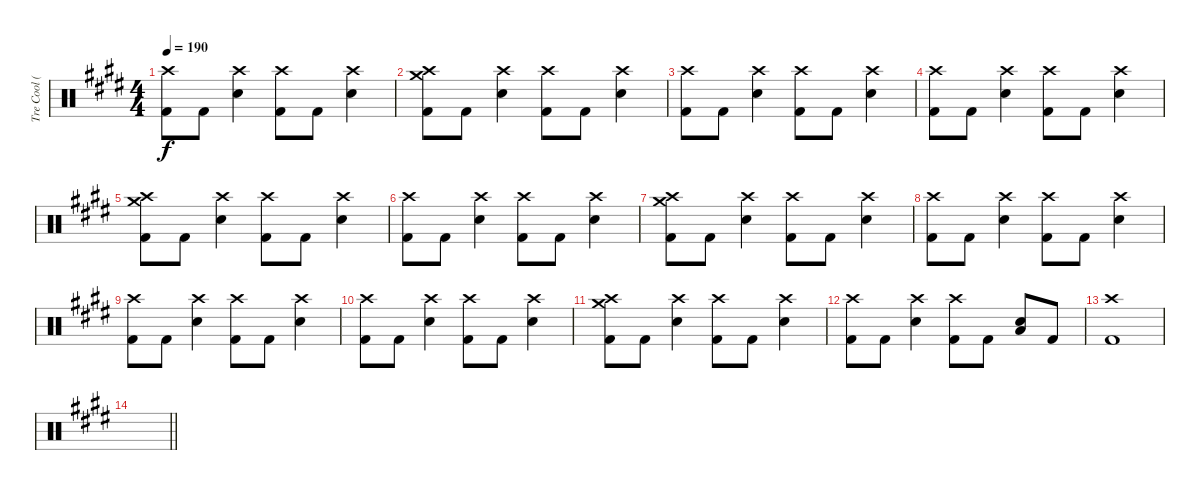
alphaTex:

\track ("Tre Cool (Drums)" "Tre Cool (") {instrument percussion}
\staff {score}
\articulation defaults
\ts (4 4)
\tempo 190
\clef neutral
\ks e
("Kick (hit) 2" "Crash high (hit)").8{dy f} "Kick (hit) 2".8 ("Electric Snare (hit)" "Crash high (hit)").4 ("Kick (hit) 2" "Crash high (hit)").8 "Kick (hit) 2".8 ("Electric Snare (hit)" "Crash high (hit)").4 |
("Kick (hit) 2" "Crash medium (hit)" "Crash high (hit)").8 "Kick (hit) 2".8 ("Electric Snare (hit)" "Crash high (hit)").4 ("Kick (hit) 2" "Crash high (hit)").8 "Kick (hit) 2".8 ("Electric Snare (hit)" "Crash high (hit)").4 |
("Kick (hit) 2" "Crash high (hit)").8 "Kick (hit) 2".8 ("Electric Snare (hit)" "Crash high (hit)").4 ("Kick (hit) 2" "Crash high (hit)").8 "Kick (hit) 2".8 ("Electric Snare (hit)" "Crash high (hit)").4 |
("Kick (hit) 2" "Crash high (hit)").8 "Kick (hit) 2".8 ("Electric Snare (hit)" "Crash high (hit)").4 ("Kick (hit) 2" "Crash high (hit)").8 "Kick (hit) 2".8 ("Electric Snare (hit)" "Crash high (hit)").4 |
("Kick (hit) 2" "Crash medium (hit)" "Crash high (hit)").8 "Kick (hit) 2".8 ("Electric Snare (hit)" "Crash high (hit)").4 ("Kick (hit) 2" "Crash high (hit)").8 "Kick (hit) 2".8 ("Electric Snare (hit)" "Crash high (hit)").4 |
("Kick (hit) 2" "Crash high (hit)").8 "Kick (hit) 2".8 ("Electric Snare (hit)" "Crash high (hit)").4 ("Kick (hit) 2" "Crash high (hit)").8 "Kick (hit) 2".8 ("Electric Snare (hit)" "Crash high (hit)").4 |
("Kick (hit) 2" "Crash medium (hit)" "Crash high (hit)").8 "Kick (hit) 2".8 ("Electric Snare (hit)" "Crash high (hit)").4 ("Kick (hit) 2" "Crash high (hit)").8 "Kick (hit) 2".8 ("Electric Snare (hit)" "Crash high (hit)").4 |
("Kick (hit) 2" "Crash high (hit)").8 "Kick (hit) 2".8 ("Electric Snare (hit)" "Crash high (hit)").4 ("Kick (hit) 2" "Crash high (hit)").8 "Kick (hit) 2".8 ("Electric Snare (hit)" "Crash high (hit)").4 |
("Kick (hit) 2" "Crash high (hit)").8 "Kick (hit) 2".8 ("Electric Snare (hit)" "Crash high (hit)").4 ("Kick (hit) 2" "Crash high (hit)").8 "Kick (hit) 2".8 ("Electric Snare (hit)" "Crash high (hit)").4 |
("Kick (hit) 2" "Crash high (hit)").8 "Kick (hit) 2".8 ("Electric Snare (hit)" "Crash high (hit)").4 ("Kick (hit) 2" "Crash high (hit)").8 "Kick (hit) 2".8 ("Electric Snare (hit)" "Crash high (hit)").4 |
("Kick (hit) 2" "Crash medium (hit)" "Crash high (hit)").8 "Kick (hit) 2".8 ("Electric Snare (hit)" "Crash high (hit)").4 ("Kick (hit) 2" "Crash high (hit)").8 "Kick (hit) 2".8 ("Electric Snare (hit)" "Crash high (hit)").4 |
("Kick (hit) 2" "Crash high (hit)").8 "Kick (hit) 2".8 ("Electric Snare (hit)" "Crash high (hit)").4 ("Kick (hit) 2" "Crash high (hit)").8 "Kick (hit) 2".8 ("Electric Snare (hit)" "Low Tom (hit)").8 "Kick (hit) 2".8 |
("Crash high (hit)" "Kick (hit) 2").1 |
\barLineRight lightlight
